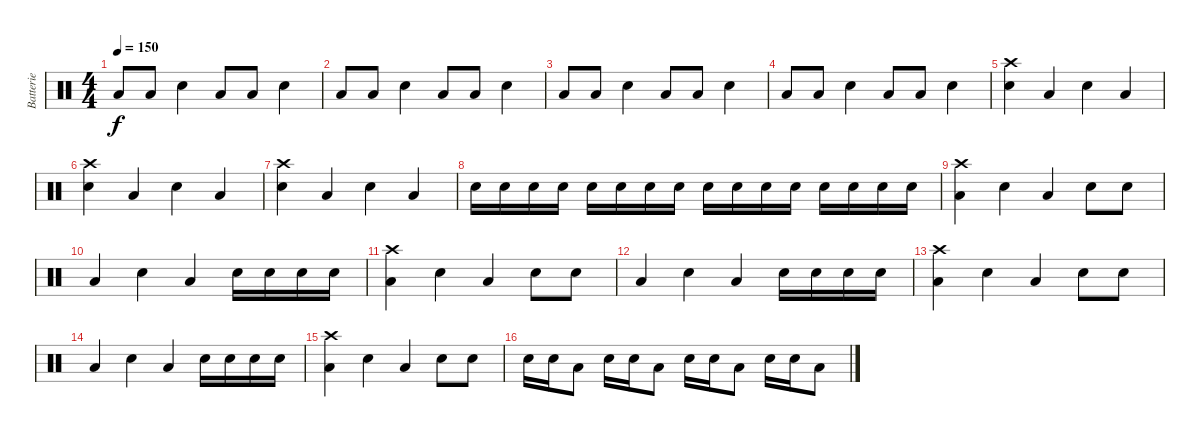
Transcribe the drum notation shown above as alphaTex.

\track ("Batterie" "Batterie") {instrument percussion}
\staff {score}
\articulation defaults
\ts (4 4)
\tempo 150
\clef neutral
\ks c "Low Tom (hit)".8{dy f} "Low Tom (hit)".8 "Snare (hit) 2".4 "Low Tom (hit)".8 "Low Tom (hit)".8 "Snare (hit) 2".4
|
"Low Tom (hit)".8 "Low Tom (hit)".8 "Snare (hit) 2".4 "Low Tom (hit)".8 "Low Tom (hit)".8 "Snare (hit) 2".4 |
"Low Tom (hit)".8 "Low Tom (hit)".8 "Snare (hit) 2".4 "Low Tom (hit)".8 "Low Tom (hit)".8 "Snare (hit) 2".4 |
"Low Tom (hit)".8 "Low Tom (hit)".8 "Snare (hit) 2".4 "Low Tom (hit)".8 "Low Tom (hit)".8 "Snare (hit) 2".4 |
("Crash high (hit)" "Snare (hit) 2").4 "Low Tom (hit)".4 "Snare (hit) 2".4 "Low Tom (hit)".4 |
("Crash high (hit)" "Snare (hit) 2").4 "Low Tom (hit)".4 "Snare (hit) 2".4 "Low Tom (hit)".4 |
("Crash high (hit)" "Snare (hit) 2").4 "Low Tom (hit)".4 "Snare (hit) 2".4 "Low Tom (hit)".4 |
"Snare (hit) 2".16 "Snare (hit) 2".16 "Snare (hit) 2".16 "Snare (hit) 2".16 "Snare (hit) 2".16 "Snare (hit) 2".16 "Snare (hit) 2".16 "Snare (hit) 2".16 "Snare (hit) 2".16 "Snare (hit) 2".16 "Snare (hit) 2".16 "Snare (hit) 2".16 "Snare (hit) 2".16 "Snare (hit) 2".16 "Snare (hit) 2".16 "Snare (hit) 2".16 |
("Crash high (hit)" "Low Tom (hit)").4 "Snare (hit) 2".4 "Low Tom (hit)".4 "Snare (hit) 2".8 "Snare (hit) 2".8 |
"Low Tom (hit)".4 "Snare (hit) 2".4 "Low Tom (hit)".4 "Snare (hit) 2".16 "Snare (hit) 2".16 "Snare (hit) 2".16 "Snare (hit) 2".16 |
("Crash high (hit)" "Low Tom (hit)").4 "Snare (hit) 2".4 "Low Tom (hit)".4 "Snare (hit) 2".8 "Snare (hit) 2".8 |
"Low Tom (hit)".4 "Snare (hit) 2".4 "Low Tom (hit)".4 "Snare (hit) 2".16 "Snare (hit) 2".16 "Snare (hit) 2".16 "Snare (hit) 2".16 |
("Crash high (hit)" "Low Tom (hit)").4 "Snare (hit) 2".4 "Low Tom (hit)".4 "Snare (hit) 2".8 "Snare (hit) 2".8 |
"Low Tom (hit)".4 "Snare (hit) 2".4 "Low Tom (hit)".4 "Snare (hit) 2".16 "Snare (hit) 2".16 "Snare (hit) 2".16 "Snare (hit) 2".16 |
("Crash high (hit)" "Low Tom (hit)").4 "Snare (hit) 2".4 "Low Tom (hit)".4 "Snare (hit) 2".8 "Snare (hit) 2".8 |
"Snare (hit) 2".16 "Snare (hit) 2".16 "Low Tom (hit)".8 "Snare (hit) 2".16 "Snare (hit) 2".16 "Low Tom (hit)".8 "Snare (hit) 2".16 "Snare (hit) 2".16 "Low Tom (hit)".8 "Snare (hit) 2".16 "Snare (hit) 2".16 "Low Tom (hit)".8
